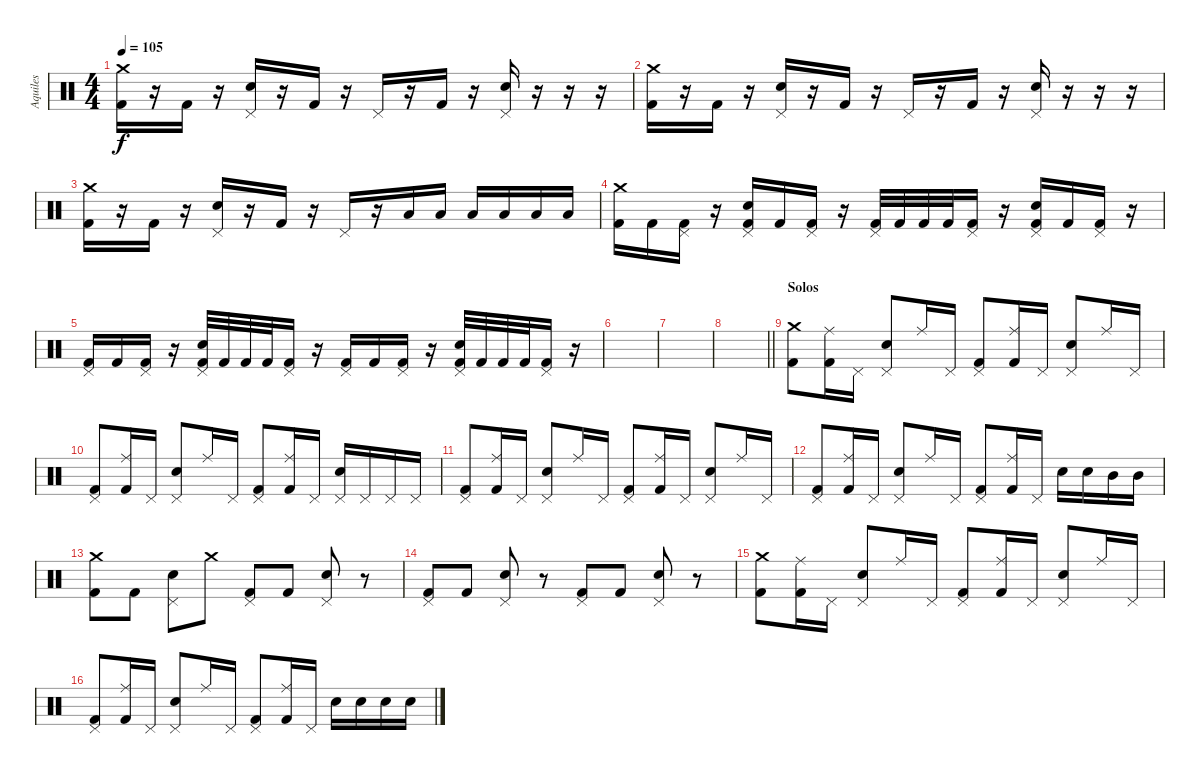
\track ("Aquiles" "Aquiles") {instrument percussion}
\staff {score}
\articulation defaults
\ts (4 4)
\tempo 105
\clef neutral
\ks c
("Kick (hit) 2" "Crash medium (hit)").16{dy f} r.16 "Kick (hit) 2".16 r.16 ("Pedal Hi-Hat (hit)" "Electric Snare (hit)").16 r.16 "Kick (hit) 2".16 r.16 "Pedal Hi-Hat (hit)".16 r.16 "Kick (hit) 2".16 r.16 ("Pedal Hi-Hat (hit)" "Electric Snare (hit)").16 r.16 r.16 r.16 |
("Kick (hit) 2" "Crash medium (hit)").16 r.16 "Kick (hit) 2".16 r.16 ("Pedal Hi-Hat (hit)" "Electric Snare (hit)").16 r.16 "Kick (hit) 2".16 r.16 "Pedal Hi-Hat (hit)".16 r.16 "Kick (hit) 2".16 r.16 ("Pedal Hi-Hat (hit)" "Electric Snare (hit)").16 r.16 r.16 r.16 |
("Kick (hit) 2" "Crash medium (hit)").16 r.16 "Kick (hit) 2".16 r.16 ("Pedal Hi-Hat (hit)" "Electric Snare (hit)").16 r.16 "Kick (hit) 2".16 r.16 "Pedal Hi-Hat (hit)".16 r.16 "Low Tom (hit)".16 "Low Tom (hit)".16 "Low Tom (hit)".16 "Low Tom (hit)".16 "Low Floor Tom (hit)".16 "Low Floor Tom (hit)".16 |
("Kick (hit) 2" "Crash medium (hit)").16 "Kick (hit) 2".16 ("Kick (hit) 2" "Pedal Hi-Hat (hit)").16 r.16 ("Kick (hit) 2" "Pedal Hi-Hat (hit)" "Electric Snare (hit)").16 "Kick (hit) 2".16 ("Kick (hit) 2" "Pedal Hi-Hat (hit)").16 r.16 ("Kick (hit) 2" "Pedal Hi-Hat (hit)").32 "Kick (hit) 2".32 "Kick (hit) 2".32 "Kick (hit) 2".32 ("Kick (hit) 2" "Pedal Hi-Hat (hit)").16 r.16 ("Kick (hit) 2" "Pedal Hi-Hat (hit)" "Electric Snare (hit)").16 "Kick (hit) 2".16 ("Kick (hit) 2" "Pedal Hi-Hat (hit)").16 r.16 |
("Kick (hit) 2" "Pedal Hi-Hat (hit)").16 "Kick (hit) 2".16 ("Kick (hit) 2" "Pedal Hi-Hat (hit)").16 r.16 ("Kick (hit) 2" "Pedal Hi-Hat (hit)" "Electric Snare (hit)").32 "Kick (hit) 2".32 "Kick (hit) 2".32 "Kick (hit) 2".32 ("Kick (hit) 2" "Pedal Hi-Hat (hit)").16 r.16 ("Kick (hit) 2" "Pedal Hi-Hat (hit)").16 "Kick (hit) 2".16 ("Kick (hit) 2" "Pedal Hi-Hat (hit)").16 r.16 ("Kick (hit) 2" "Pedal Hi-Hat (hit)" "Electric Snare (hit)").32 "Kick (hit) 2".32 "Kick (hit) 2".32 "Kick (hit) 2".32 ("Kick (hit) 2" "Pedal Hi-Hat (hit)").16 r.16 |
|
|
\barLineRight lightlight
|
\section ("" "Solos")
("Kick (hit) 2" "Crash medium (hit)").8 ("Kick (hit) 2" "Ride (middle)").16 "Pedal Hi-Hat (hit)".16 ("Pedal Hi-Hat (hit)" "Electric Snare (hit)").8 "Ride (middle)".16 "Pedal Hi-Hat (hit)".16 ("Kick (hit) 2" "Pedal Hi-Hat (hit)").8 ("Kick (hit) 2" "Ride (middle)").16 "Pedal Hi-Hat (hit)".16 ("Pedal Hi-Hat (hit)" "Electric Snare (hit)").8 "Ride (middle)".16 "Pedal Hi-Hat (hit)".16 |
("Kick (hit) 2" "Pedal Hi-Hat (hit)").8 ("Kick (hit) 2" "Ride (middle)").16 "Pedal Hi-Hat (hit)".16 ("Pedal Hi-Hat (hit)" "Electric Snare (hit)").8 "Ride (middle)".16 "Pedal Hi-Hat (hit)".16 ("Kick (hit) 2" "Pedal Hi-Hat (hit)").8 ("Kick (hit) 2" "Ride (middle)").16 "Pedal Hi-Hat (hit)".16 ("Pedal Hi-Hat (hit)" "Electric Snare (hit)").16 "Pedal Hi-Hat (hit)".16 "Pedal Hi-Hat (hit)".16 "Pedal Hi-Hat (hit)".16 |
("Kick (hit) 2" "Pedal Hi-Hat (hit)").8 ("Kick (hit) 2" "Ride (middle)").16 "Pedal Hi-Hat (hit)".16 ("Pedal Hi-Hat (hit)" "Electric Snare (hit)").8 "Ride (middle)".16 "Pedal Hi-Hat (hit)".16 ("Kick (hit) 2" "Pedal Hi-Hat (hit)").8 ("Kick (hit) 2" "Ride (middle)").16 "Pedal Hi-Hat (hit)".16 ("Pedal Hi-Hat (hit)" "Electric Snare (hit)").8 "Ride (middle)".16 "Pedal Hi-Hat (hit)".16 |
("Kick (hit) 2" "Pedal Hi-Hat (hit)").8 ("Kick (hit) 2" "Ride (middle)").16 "Pedal Hi-Hat (hit)".16 ("Pedal Hi-Hat (hit)" "Electric Snare (hit)").8 "Ride (middle)".16 "Pedal Hi-Hat (hit)".16 ("Kick (hit) 2" "Pedal Hi-Hat (hit)").8 ("Kick (hit) 2" "Ride (middle)").16 "Pedal Hi-Hat (hit)".16 "Electric Snare (hit)".16 "Electric Snare (hit)".16 "Mid Tom (hit)".16 "Mid Tom (hit)".16 |
("Kick (hit) 2" "Crash medium (hit)").8 "Kick (hit) 2".8 ("Pedal Hi-Hat (hit)" "Electric Snare (hit)").8 "Crash medium (hit)".8 ("Kick (hit) 2" "Pedal Hi-Hat (hit)").8 "Kick (hit) 2".8 ("Pedal Hi-Hat (hit)" "Electric Snare (hit)").8 r.8 |
("Kick (hit) 2" "Pedal Hi-Hat (hit)").8 "Kick (hit) 2".8 ("Pedal Hi-Hat (hit)" "Electric Snare (hit)").8 r.8 ("Kick (hit) 2" "Pedal Hi-Hat (hit)").8 "Kick (hit) 2".8 ("Pedal Hi-Hat (hit)" "Electric Snare (hit)").8 r.8 |
("Kick (hit) 2" "Crash medium (hit)").8 ("Kick (hit) 2" "Ride (middle)").16 "Pedal Hi-Hat (hit)".16 ("Pedal Hi-Hat (hit)" "Electric Snare (hit)").8 "Ride (middle)".16 "Pedal Hi-Hat (hit)".16 ("Kick (hit) 2" "Pedal Hi-Hat (hit)").8 ("Kick (hit) 2" "Ride (middle)").16 "Pedal Hi-Hat (hit)".16 ("Pedal Hi-Hat (hit)" "Electric Snare (hit)").8 "Ride (middle)".16 "Pedal Hi-Hat (hit)".16 |
("Kick (hit) 2" "Pedal Hi-Hat (hit)").8 ("Kick (hit) 2" "Ride (middle)").16 "Pedal Hi-Hat (hit)".16 ("Pedal Hi-Hat (hit)" "Electric Snare (hit)").8 "Ride (middle)".16 "Pedal Hi-Hat (hit)".16 ("Kick (hit) 2" "Pedal Hi-Hat (hit)").8 ("Kick (hit) 2" "Ride (middle)").16 "Pedal Hi-Hat (hit)".16 "Electric Snare (hit)".16 "Electric Snare (hit)".16 "Electric Snare (hit)".16 "Electric Snare (hit)".16
